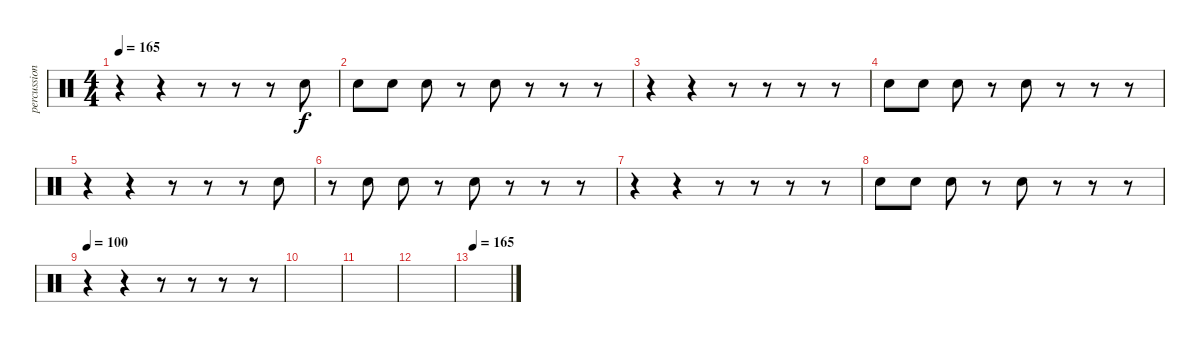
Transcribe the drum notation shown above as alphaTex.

\track ("percussion" "percussion") {instrument percussion}
\staff {score}
\articulation defaults
\ts (4 4)
\tempo 165
\clef neutral
\ks c
r.4{dy f} r.4 r.8 r.8 r.8 "Hand Clap (hit)".8 |
"Hand Clap (hit)".8 "Hand Clap (hit)".8 "Hand Clap (hit)".8 r.8 "Hand Clap (hit)".8 r.8 r.8 r.8 |
r.4 r.4 r.8 r.8 r.8 r.8 |
"Hand Clap (hit)".8 "Hand Clap (hit)".8 "Hand Clap (hit)".8 r.8 "Hand Clap (hit)".8 r.8 r.8 r.8 |
r.4 r.4 r.8 r.8 r.8 "Hand Clap (hit)".8 |
r.8 "Hand Clap (hit)".8 "Hand Clap (hit)".8 r.8 "Hand Clap (hit)".8 r.8 r.8 r.8 |
r.4 r.4 r.8 r.8 r.8 r.8 |
"Hand Clap (hit)".8 "Hand Clap (hit)".8 "Hand Clap (hit)".8 r.8 "Hand Clap (hit)".8 r.8 r.8 r.8 |
\tempo 100
r.4 r.4 r.8 r.8 r.8 r.8 |
|
|
|
\tempo 165
